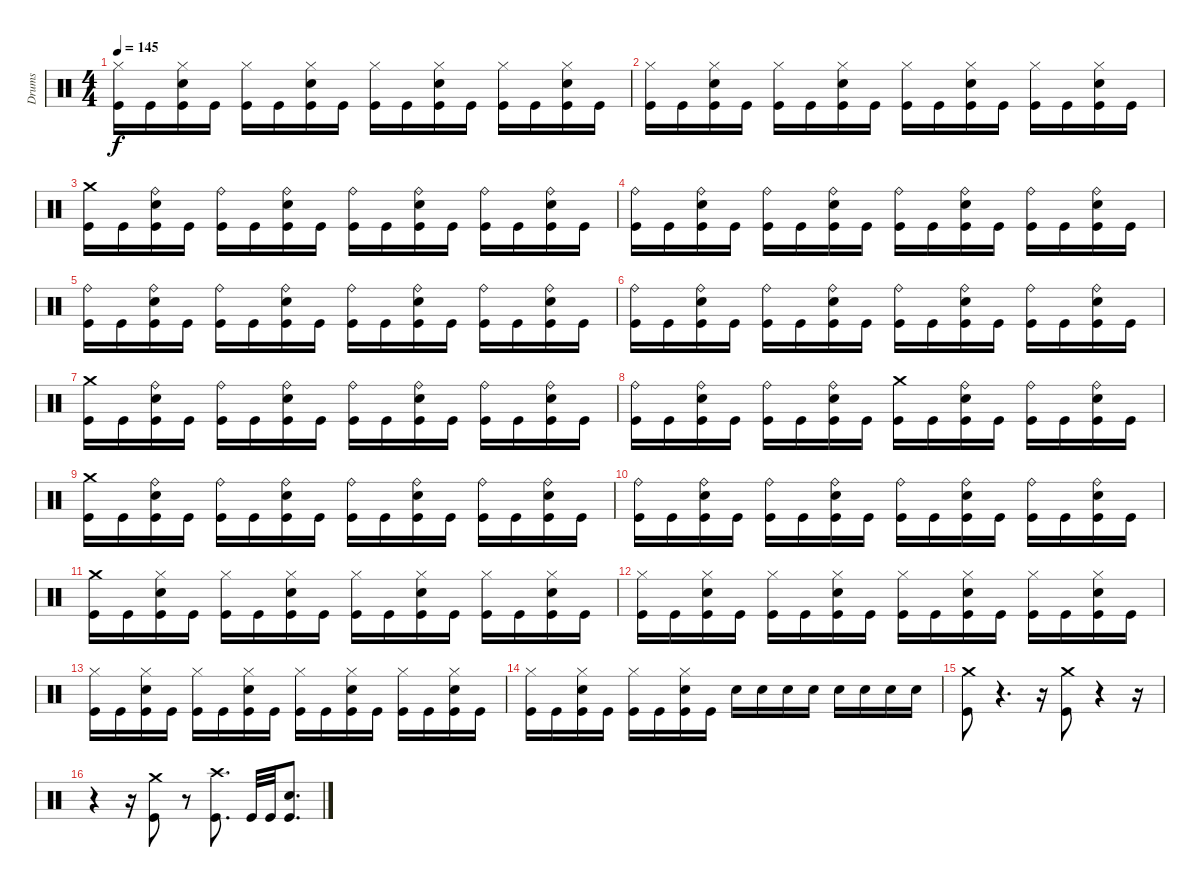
\track ("Drums" "Drums") {instrument percussion}
\staff {score}
\articulation defaults
\ts (4 4)
\tempo 145
\clef neutral
\ks c
("Hi-Hat (closed)" "Kick (hit)").16{dy f} "Kick (hit)".16 ("Hi-Hat (closed)" "Snare (hit) 2" "Kick (hit)").16 "Kick (hit)".16 ("Hi-Hat (closed)" "Kick (hit)").16 "Kick (hit)".16 ("Hi-Hat (closed)" "Snare (hit) 2" "Kick (hit)").16 "Kick (hit)".16 ("Hi-Hat (closed)" "Kick (hit)").16 "Kick (hit)".16 ("Hi-Hat (closed)" "Snare (hit) 2" "Kick (hit)").16 "Kick (hit)".16 ("Hi-Hat (closed)" "Kick (hit)").16 "Kick (hit)".16 ("Hi-Hat (closed)" "Snare (hit) 2" "Kick (hit)").16 "Kick (hit)".16 |
("Hi-Hat (closed)" "Kick (hit)").16 "Kick (hit)".16 ("Hi-Hat (closed)" "Snare (hit) 2" "Kick (hit)").16 "Kick (hit)".16 ("Hi-Hat (closed)" "Kick (hit)").16 "Kick (hit)".16 ("Hi-Hat (closed)" "Snare (hit) 2" "Kick (hit)").16 "Kick (hit)".16 ("Hi-Hat (closed)" "Kick (hit)").16 "Kick (hit)".16 ("Hi-Hat (closed)" "Snare (hit) 2" "Kick (hit)").16 "Kick (hit)".16 ("Hi-Hat (closed)" "Kick (hit)").16 "Kick (hit)".16 ("Hi-Hat (closed)" "Snare (hit) 2" "Kick (hit)").16 "Kick (hit)".16 |
("Crash medium (hit)" "Kick (hit)").16 "Kick (hit)".16 ("Ride (bell)" "Snare (hit) 2" "Kick (hit)").16 "Kick (hit)".16 ("Ride (bell)" "Kick (hit)").16 "Kick (hit)".16 ("Ride (bell)" "Snare (hit) 2" "Kick (hit)").16 "Kick (hit)".16 ("Ride (bell)" "Kick (hit)").16 "Kick (hit)".16 ("Ride (bell)" "Snare (hit) 2" "Kick (hit)").16 "Kick (hit)".16 ("Ride (bell)" "Kick (hit)").16 "Kick (hit)".16 ("Ride (bell)" "Snare (hit) 2" "Kick (hit)").16 "Kick (hit)".16 |
("Ride (bell)" "Kick (hit)").16 "Kick (hit)".16 ("Ride (bell)" "Snare (hit) 2" "Kick (hit)").16 "Kick (hit)".16 ("Ride (bell)" "Kick (hit)").16 "Kick (hit)".16 ("Ride (bell)" "Snare (hit) 2" "Kick (hit)").16 "Kick (hit)".16 ("Ride (bell)" "Kick (hit)").16 "Kick (hit)".16 ("Ride (bell)" "Snare (hit) 2" "Kick (hit)").16 "Kick (hit)".16 ("Ride (bell)" "Kick (hit)").16 "Kick (hit)".16 ("Ride (bell)" "Snare (hit) 2" "Kick (hit)").16 "Kick (hit)".16 |
("Ride (bell)" "Kick (hit)").16 "Kick (hit)".16 ("Ride (bell)" "Snare (hit) 2" "Kick (hit)").16 "Kick (hit)".16 ("Ride (bell)" "Kick (hit)").16 "Kick (hit)".16 ("Ride (bell)" "Snare (hit) 2" "Kick (hit)").16 "Kick (hit)".16 ("Ride (bell)" "Kick (hit)").16 "Kick (hit)".16 ("Ride (bell)" "Snare (hit) 2" "Kick (hit)").16 "Kick (hit)".16 ("Ride (bell)" "Kick (hit)").16 "Kick (hit)".16 ("Ride (bell)" "Snare (hit) 2" "Kick (hit)").16 "Kick (hit)".16 |
("Ride (bell)" "Kick (hit)").16 "Kick (hit)".16 ("Ride (bell)" "Snare (hit) 2" "Kick (hit)").16 "Kick (hit)".16 ("Ride (bell)" "Kick (hit)").16 "Kick (hit)".16 ("Ride (bell)" "Snare (hit) 2" "Kick (hit)").16 "Kick (hit)".16 ("Ride (bell)" "Kick (hit)").16 "Kick (hit)".16 ("Ride (bell)" "Snare (hit) 2" "Kick (hit)").16 "Kick (hit)".16 ("Ride (bell)" "Kick (hit)").16 "Kick (hit)".16 ("Ride (bell)" "Snare (hit) 2" "Kick (hit)").16 "Kick (hit)".16 |
("Crash medium (hit)" "Kick (hit)").16 "Kick (hit)".16 ("Ride (bell)" "Snare (hit) 2" "Kick (hit)").16 "Kick (hit)".16 ("Ride (bell)" "Kick (hit)").16 "Kick (hit)".16 ("Ride (bell)" "Snare (hit) 2" "Kick (hit)").16 "Kick (hit)".16 ("Ride (bell)" "Kick (hit)").16 "Kick (hit)".16 ("Ride (bell)" "Snare (hit) 2" "Kick (hit)").16 "Kick (hit)".16 ("Ride (bell)" "Kick (hit)").16 "Kick (hit)".16 ("Ride (bell)" "Snare (hit) 2" "Kick (hit)").16 "Kick (hit)".16 |
("Ride (bell)" "Kick (hit)").16 "Kick (hit)".16 ("Ride (bell)" "Snare (hit) 2" "Kick (hit)").16 "Kick (hit)".16 ("Ride (bell)" "Kick (hit)").16 "Kick (hit)".16 ("Ride (bell)" "Snare (hit) 2" "Kick (hit)").16 "Kick (hit)".16 ("Crash medium (hit)" "Kick (hit)").16 "Kick (hit)".16 ("Ride (bell)" "Snare (hit) 2" "Kick (hit)").16 "Kick (hit)".16 ("Ride (bell)" "Kick (hit)").16 "Kick (hit)".16 ("Ride (bell)" "Snare (hit) 2" "Kick (hit)").16 "Kick (hit)".16 |
("Crash medium (hit)" "Kick (hit)").16 "Kick (hit)".16 ("Ride (bell)" "Snare (hit) 2" "Kick (hit)").16 "Kick (hit)".16 ("Ride (bell)" "Kick (hit)").16 "Kick (hit)".16 ("Ride (bell)" "Snare (hit) 2" "Kick (hit)").16 "Kick (hit)".16 ("Ride (bell)" "Kick (hit)").16 "Kick (hit)".16 ("Ride (bell)" "Snare (hit) 2" "Kick (hit)").16 "Kick (hit)".16 ("Ride (bell)" "Kick (hit)").16 "Kick (hit)".16 ("Ride (bell)" "Snare (hit) 2" "Kick (hit)").16 "Kick (hit)".16 |
("Ride (bell)" "Kick (hit)").16 "Kick (hit)".16 ("Ride (bell)" "Snare (hit) 2" "Kick (hit)").16 "Kick (hit)".16 ("Ride (bell)" "Kick (hit)").16 "Kick (hit)".16 ("Ride (bell)" "Snare (hit) 2" "Kick (hit)").16 "Kick (hit)".16 ("Ride (bell)" "Kick (hit)").16 "Kick (hit)".16 ("Ride (bell)" "Snare (hit) 2" "Kick (hit)").16 "Kick (hit)".16 ("Ride (bell)" "Kick (hit)").16 "Kick (hit)".16 ("Ride (bell)" "Snare (hit) 2" "Kick (hit)").16 "Kick (hit)".16 |
("Crash medium (hit)" "Kick (hit)").16 "Kick (hit)".16 ("Hi-Hat (closed)" "Snare (hit) 2" "Kick (hit)").16 "Kick (hit)".16 ("Hi-Hat (closed)" "Kick (hit)").16 "Kick (hit)".16 ("Hi-Hat (closed)" "Snare (hit) 2" "Kick (hit)").16 "Kick (hit)".16 ("Hi-Hat (closed)" "Kick (hit)").16 "Kick (hit)".16 ("Hi-Hat (closed)" "Snare (hit) 2" "Kick (hit)").16 "Kick (hit)".16 ("Hi-Hat (closed)" "Kick (hit)").16 "Kick (hit)".16 ("Hi-Hat (closed)" "Snare (hit) 2" "Kick (hit)").16 "Kick (hit)".16 |
("Hi-Hat (closed)" "Kick (hit)").16 "Kick (hit)".16 ("Hi-Hat (closed)" "Snare (hit) 2" "Kick (hit)").16 "Kick (hit)".16 ("Hi-Hat (closed)" "Kick (hit)").16 "Kick (hit)".16 ("Hi-Hat (closed)" "Snare (hit) 2" "Kick (hit)").16 "Kick (hit)".16 ("Hi-Hat (closed)" "Kick (hit)").16 "Kick (hit)".16 ("Hi-Hat (closed)" "Snare (hit) 2" "Kick (hit)").16 "Kick (hit)".16 ("Hi-Hat (closed)" "Kick (hit)").16 "Kick (hit)".16 ("Hi-Hat (closed)" "Snare (hit) 2" "Kick (hit)").16 "Kick (hit)".16 |
("Hi-Hat (closed)" "Kick (hit)").16 "Kick (hit)".16 ("Hi-Hat (closed)" "Snare (hit) 2" "Kick (hit)").16 "Kick (hit)".16 ("Hi-Hat (closed)" "Kick (hit)").16 "Kick (hit)".16 ("Hi-Hat (closed)" "Snare (hit) 2" "Kick (hit)").16 "Kick (hit)".16 ("Hi-Hat (closed)" "Kick (hit)").16 "Kick (hit)".16 ("Hi-Hat (closed)" "Snare (hit) 2" "Kick (hit)").16 "Kick (hit)".16 ("Hi-Hat (closed)" "Kick (hit)").16 "Kick (hit)".16 ("Hi-Hat (closed)" "Snare (hit) 2" "Kick (hit)").16 "Kick (hit)".16 |
("Hi-Hat (closed)" "Kick (hit)").16 "Kick (hit)".16 ("Hi-Hat (closed)" "Snare (hit) 2" "Kick (hit)").16 "Kick (hit)".16 ("Hi-Hat (closed)" "Kick (hit)").16 "Kick (hit)".16 ("Hi-Hat (closed)" "Snare (hit) 2" "Kick (hit)").16 "Kick (hit)".16 "Snare (hit) 2".16 "Snare (hit) 2".16 "Snare (hit) 2".16 "Snare (hit) 2".16 "Snare (hit) 2".16 "Snare (hit) 2".16 "Snare (hit) 2".16 "Snare (hit) 2".16 |
("Crash medium (hit)" "Kick (hit)").8 r.4{d} r.16 ("Crash medium (hit)" "Kick (hit)").8 r.4 r.16 |
r.4 r.16 ("Crash medium (hit)" "Kick (hit)").8 r.8 ("Crash high (hit)" "Kick (hit)").8{d} "Kick (hit)".32 "Kick (hit)".32 ("Snare (hit) 2" "Kick (hit)").8{d}
